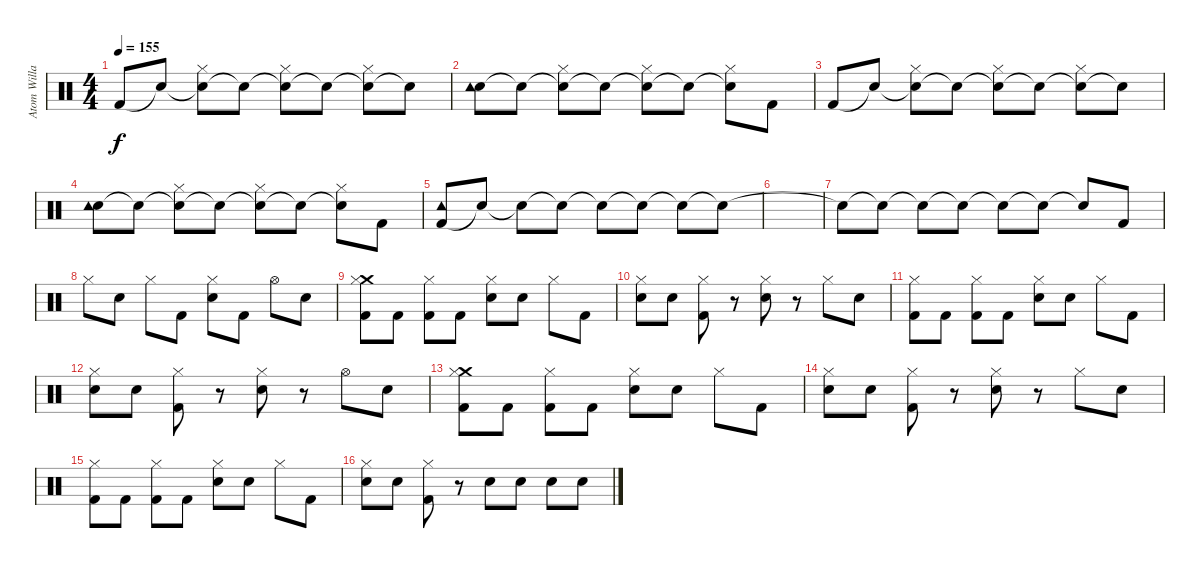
\track ("Atom Willard Drums" "Atom Willa") {instrument percussion}
\staff {score}
\articulation defaults
\ts (4 4)
\tempo 155
\clef neutral
\ks c "Kick (hit) 2".8{dy f} "Snare (hit)"{t}.8
("Snare (hit)"{t} "Hi-Hat (closed)").8 "Snare (hit)"{t}.8 ("Snare (hit)"{t} "Hi-Hat (closed)").8 "Snare (hit)"{t}.8 ("Snare (hit)"{t} "Hi-Hat (closed)").8 "Snare (hit)"{t}.8 |
("Hand Clap (hit)" "Tambourine (hit)").8 "Snare (hit)"{t}.8 ("Snare (hit)"{t} "Hi-Hat (closed)").8 "Snare (hit)"{t}.8 ("Snare (hit)"{t} "Hi-Hat (closed)").8 "Snare (hit)"{t}.8 ("Snare (hit)"{t} "Hi-Hat (closed)").8 "Kick (hit) 2".8 |
"Kick (hit) 2".8 "Snare (hit)"{t}.8 ("Snare (hit)"{t} "Hi-Hat (closed)").8 "Snare (hit)"{t}.8 ("Snare (hit)"{t} "Hi-Hat (closed)").8 "Snare (hit)"{t}.8 ("Snare (hit)"{t} "Hi-Hat (closed)").8 "Snare (hit)"{t}.8 |
("Hand Clap (hit)" "Tambourine (hit)").8 "Snare (hit)"{t}.8 ("Snare (hit)"{t} "Hi-Hat (closed)").8 "Snare (hit)"{t}.8 ("Snare (hit)"{t} "Hi-Hat (closed)").8 "Snare (hit)"{t}.8 ("Snare (hit)"{t} "Hi-Hat (closed)").8 "Kick (hit) 2".8 |
("Kick (hit) 2" "Tambourine (hit)").8 "Snare (hit)"{t}.8 "Snare (hit)"{t}.8 "Snare (hit)"{t}.8 "Snare (hit)"{t}.8 "Snare (hit)"{t}.8 "Snare (hit)"{t}.8 "Snare (hit)"{t}.8 |
|
"Snare (hit)"{t}.8 "Snare (hit)"{t}.8 "Snare (hit)"{t}.8 "Snare (hit)"{t}.8 "Snare (hit)"{t}.8 "Snare (hit)"{t}.8 "Snare (hit)"{t}.8 "Kick (hit) 2".8 |
"Hi-Hat (closed)".8 "Electric Snare (hit)".8 "Hi-Hat (closed)".8 "Kick (hit) 2".8 ("Electric Snare (hit)" "Hi-Hat (closed)").8 "Kick (hit) 2".8 "Hi-Hat (open)".8 "Snare (hit)".8 |
("Crash medium (hit)" "Kick (hit) 2" "Hi-Hat (closed)").8 "Kick (hit) 2".8 ("Kick (hit) 2" "Hi-Hat (closed)").8 "Kick (hit) 2".8 ("Electric Snare (hit)" "Hi-Hat (closed)").8 "Snare (hit)".8 "Hi-Hat (closed)".8 "Kick (hit) 2".8 |
("Snare (hit)" "Hi-Hat (closed)").8 "Electric Snare (hit)".8 ("Kick (hit) 2" "Hi-Hat (closed)").8 r.8 ("Electric Snare (hit)" "Hi-Hat (closed)").8 r.8 "Hi-Hat (closed)".8 "Snare (hit)".8 |
("Kick (hit) 2" "Hi-Hat (closed)").8 "Kick (hit) 2".8 ("Kick (hit) 2" "Hi-Hat (closed)").8 "Kick (hit) 2".8 ("Electric Snare (hit)" "Hi-Hat (closed)").8 "Snare (hit)".8 "Hi-Hat (closed)".8 "Kick (hit) 2".8 |
("Snare (hit)" "Hi-Hat (closed)").8 "Electric Snare (hit)".8 ("Kick (hit) 2" "Hi-Hat (closed)").8 r.8 ("Electric Snare (hit)" "Hi-Hat (closed)").8 r.8 "Hi-Hat (open)".8 "Snare (hit)".8 |
("Crash medium (hit)" "Kick (hit) 2" "Hi-Hat (closed)").8 "Kick (hit) 2".8 ("Kick (hit) 2" "Hi-Hat (closed)").8 "Kick (hit) 2".8 ("Electric Snare (hit)" "Hi-Hat (closed)").8 "Snare (hit)".8 "Hi-Hat (closed)".8 "Kick (hit) 2".8 |
("Snare (hit)" "Hi-Hat (closed)").8 "Electric Snare (hit)".8 ("Kick (hit) 2" "Hi-Hat (closed)").8 r.8 ("Electric Snare (hit)" "Hi-Hat (closed)").8 r.8 "Hi-Hat (closed)".8 "Snare (hit)".8 |
("Kick (hit) 2" "Hi-Hat (closed)").8 "Kick (hit) 2".8 ("Kick (hit) 2" "Hi-Hat (closed)").8 "Kick (hit) 2".8 ("Electric Snare (hit)" "Hi-Hat (closed)").8 "Snare (hit)".8 "Hi-Hat (closed)".8 "Kick (hit) 2".8 |
("Snare (hit)" "Hi-Hat (closed)").8 "Electric Snare (hit)".8 ("Kick (hit) 2" "Hi-Hat (closed)").8 r.8 "Electric Snare (hit)".8 "Electric Snare (hit)".8 "Electric Snare (hit)".8 "Snare (hit)".8
